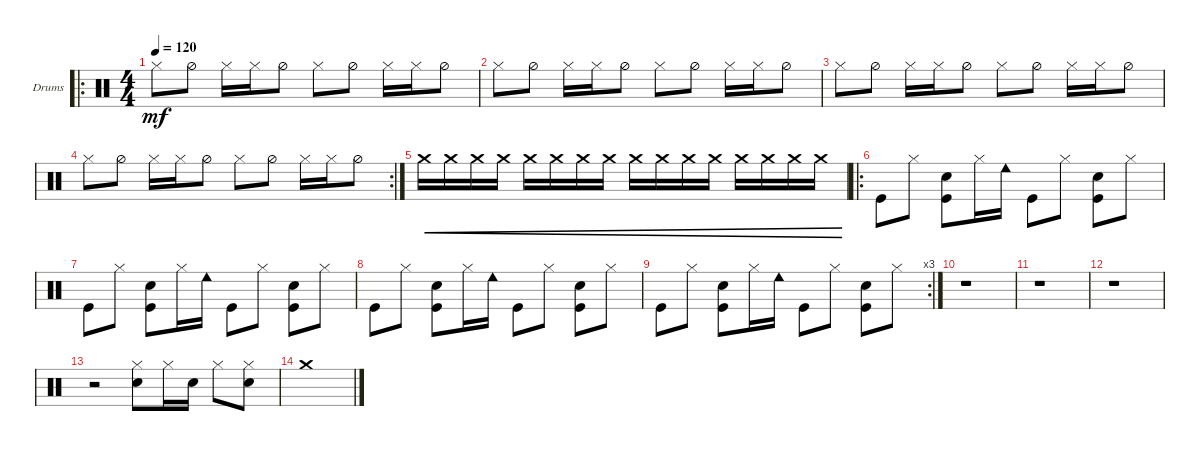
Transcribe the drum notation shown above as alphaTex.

\defaultSystemsLayout 4
\bracketExtendMode groupsimilarinstruments
\firstSystemTrackNameOrientation horizontal
\otherSystemsTrackNameOrientation horizontal
\track ("Drumkit" "Drums") {instrument percussion}
\staff {score}
\articulation defaults
\ro
\ts (4 4)
\tempo 120
\clef neutral
\ks c "Hi-Hat (closed)".8{dy mf} "Hi-Hat (half)".8 "Hi-Hat (closed)".16 "Hi-Hat (closed)".16 "Hi-Hat (half)".8 "Hi-Hat (closed)".8 "Hi-Hat (half)".8 "Hi-Hat (closed)".16 "Hi-Hat (closed)".16 "Hi-Hat (half)".8
|
"Hi-Hat (closed)".8 "Hi-Hat (half)".8 "Hi-Hat (closed)".16 "Hi-Hat (closed)".16 "Hi-Hat (half)".8 "Hi-Hat (closed)".8 "Hi-Hat (half)".8 "Hi-Hat (closed)".16 "Hi-Hat (closed)".16 "Hi-Hat (half)".8 |
"Hi-Hat (closed)".8 "Hi-Hat (half)".8 "Hi-Hat (closed)".16 "Hi-Hat (closed)".16 "Hi-Hat (half)".8 "Hi-Hat (closed)".8 "Hi-Hat (half)".8 "Hi-Hat (closed)".16 "Hi-Hat (closed)".16 "Hi-Hat (half)".8 |
\rc 2 "Hi-Hat (closed)".8 "Hi-Hat (half)".8 "Hi-Hat (closed)".16 "Hi-Hat (closed)".16 "Hi-Hat (half)".8 "Hi-Hat (closed)".8 "Hi-Hat (half)".8 "Hi-Hat (closed)".16 "Hi-Hat (closed)".16 "Hi-Hat (half)".8
|
"Crash medium (hit)".16{cre} "Crash medium (hit)".16{cre} "Crash medium (hit)".16{cre} "Crash medium (hit)".16{cre} "Crash medium (hit)".16{cre} "Crash medium (hit)".16{cre} "Crash medium (hit)".16{cre} "Crash medium (hit)".16{cre} "Crash medium (hit)".16{cre} "Crash medium (hit)".16{cre} "Crash medium (hit)".16{cre} "Crash medium (hit)".16{cre} "Crash medium (hit)".16{cre} "Crash medium (hit)".16{cre} "Crash medium (hit)".16{cre} "Crash medium (hit)".16{cre} |
\ro "Kick (hit)".8 "Hi-Hat (closed)".8
("Snare (hit) 2" "Kick (hit)").8 "Hi-Hat (closed)".16 "Cowbell low (hit)".16 "Kick (hit)".8 "Hi-Hat (closed)".8 ("Snare (hit) 2" "Kick (hit)").8 "Hi-Hat (closed)".8 |
"Kick (hit)".8 "Hi-Hat (closed)".8 ("Snare (hit) 2" "Kick (hit)").8 "Hi-Hat (closed)".16 "Cowbell low (hit)".16 "Kick (hit)".8 "Hi-Hat (closed)".8 ("Snare (hit) 2" "Kick (hit)").8 "Hi-Hat (closed)".8 |
"Kick (hit)".8 "Hi-Hat (closed)".8 ("Snare (hit) 2" "Kick (hit)").8 "Hi-Hat (closed)".16 "Cowbell low (hit)".16 "Kick (hit)".8 "Hi-Hat (closed)".8 ("Snare (hit) 2" "Kick (hit)").8 "Hi-Hat (closed)".8 |
\rc 3 "Kick (hit)".8 "Hi-Hat (closed)".8
("Snare (hit) 2" "Kick (hit)").8 "Hi-Hat (closed)".16 "Cowbell low (hit)".16 "Kick (hit)".8 "Hi-Hat (closed)".8 ("Snare (hit) 2" "Kick (hit)").8 "Hi-Hat (closed)".8 |
r.1 |
r.1 |
r.1 |
r.2 ("Snare (hit) 2" "Hi-Hat (closed)").8 "Hi-Hat (closed)".16 "Snare (hit) 2".16 "Hi-Hat (closed)".8 ("Hi-Hat (closed)" "Snare (hit) 2").8 |
"Crash medium (hit)".1
